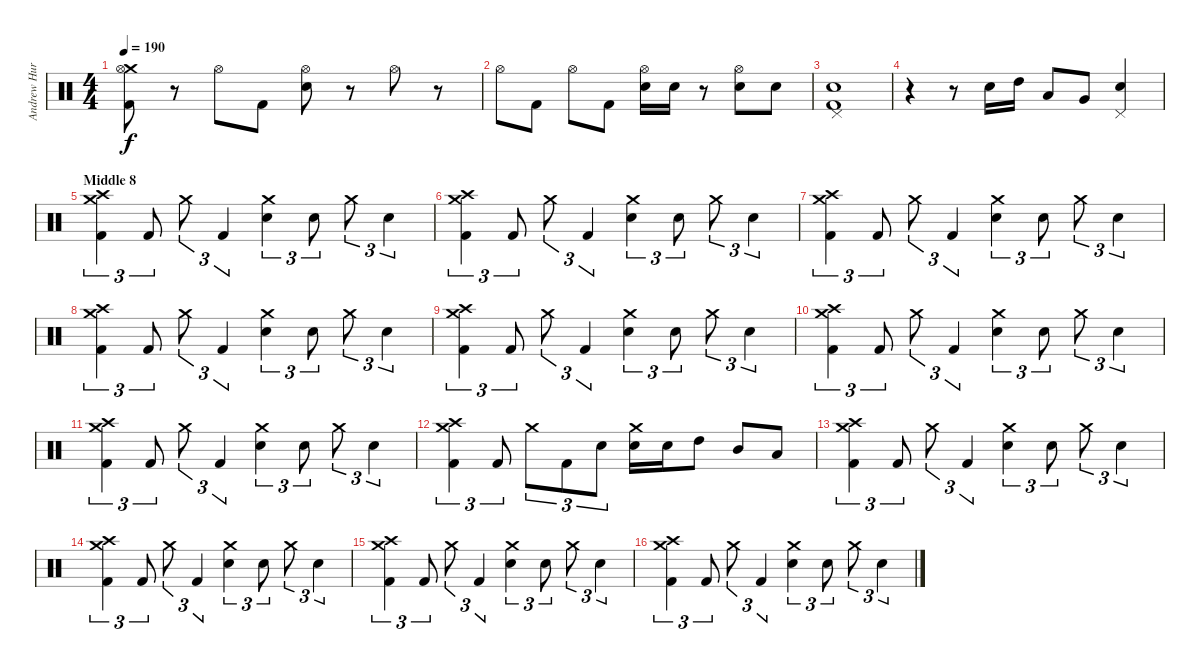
\track ("Andrew Hurley (Drums)" "Andrew Hur") {instrument percussion}
\staff {score}
\articulation defaults
\ts (4 4)
\tempo 190
\clef neutral
\ks c
("Crash medium (hit)" "Hi-Hat (open)" "Kick (hit) 2").8{dy f} r.8 "Hi-Hat (open)".8 "Kick (hit) 2".8 ("Hi-Hat (open)" "Electric Snare (hit)").8 r.8 "Hi-Hat (open)".8 r.8 |
"Hi-Hat (open)".8 "Kick (hit) 2".8 "Hi-Hat (open)".8 "Kick (hit) 2".8 ("Hi-Hat (open)" "Electric Snare (hit)").16 "Electric Snare (hit)".16 r.8 ("Hi-Hat (open)" "Electric Snare (hit)").8 "Electric Snare (hit)".8 |
("Pedal Hi-Hat (hit)" "Electric Snare (hit)" "Kick (hit) 2").1 |
r.4 r.8 "Electric Snare (hit)".16 "High Tom (hit)".16 "Low Tom (hit)".8 "Very Low Tom (hit)".8 ("Pedal Hi-Hat (hit)" "Electric Snare (hit)").4 |
\section ("" "Middle 8")
("Crash high (hit)" "Crash medium (hit)" "Kick (hit) 2").4{tu (3 2)} "Kick (hit) 2".8{tu (3 2)} "Crash medium (hit)".8{tu (3 2)} "Kick (hit) 2".4{tu (3 2)} ("Crash medium (hit)" "Electric Snare (hit)").4{tu (3 2)} "Electric Snare (hit)".8{tu (3 2)} "Crash medium (hit)".8{tu (3 2)} "Electric Snare (hit)".4{tu (3 2)} |
("Crash high (hit)" "Crash medium (hit)" "Kick (hit) 2").4{tu (3 2)} "Kick (hit) 2".8{tu (3 2)} "Crash medium (hit)".8{tu (3 2)} "Kick (hit) 2".4{tu (3 2)} ("Crash medium (hit)" "Electric Snare (hit)").4{tu (3 2)} "Electric Snare (hit)".8{tu (3 2)} "Crash medium (hit)".8{tu (3 2)} "Electric Snare (hit)".4{tu (3 2)} |
("Crash high (hit)" "Crash medium (hit)" "Kick (hit) 2").4{tu (3 2)} "Kick (hit) 2".8{tu (3 2)} "Crash medium (hit)".8{tu (3 2)} "Kick (hit) 2".4{tu (3 2)} ("Crash medium (hit)" "Electric Snare (hit)").4{tu (3 2)} "Electric Snare (hit)".8{tu (3 2)} "Crash medium (hit)".8{tu (3 2)} "Electric Snare (hit)".4{tu (3 2)} |
("Crash high (hit)" "Crash medium (hit)" "Kick (hit) 2").4{tu (3 2)} "Kick (hit) 2".8{tu (3 2)} "Crash medium (hit)".8{tu (3 2)} "Kick (hit) 2".4{tu (3 2)} ("Crash medium (hit)" "Electric Snare (hit)").4{tu (3 2)} "Electric Snare (hit)".8{tu (3 2)} "Crash medium (hit)".8{tu (3 2)} "Electric Snare (hit)".4{tu (3 2)} |
("Crash high (hit)" "Crash medium (hit)" "Kick (hit) 2").4{tu (3 2)} "Kick (hit) 2".8{tu (3 2)} "Crash medium (hit)".8{tu (3 2)} "Kick (hit) 2".4{tu (3 2)} ("Crash medium (hit)" "Electric Snare (hit)").4{tu (3 2)} "Electric Snare (hit)".8{tu (3 2)} "Crash medium (hit)".8{tu (3 2)} "Electric Snare (hit)".4{tu (3 2)} |
("Crash high (hit)" "Crash medium (hit)" "Kick (hit) 2").4{tu (3 2)} "Kick (hit) 2".8{tu (3 2)} "Crash medium (hit)".8{tu (3 2)} "Kick (hit) 2".4{tu (3 2)} ("Crash medium (hit)" "Electric Snare (hit)").4{tu (3 2)} "Electric Snare (hit)".8{tu (3 2)} "Crash medium (hit)".8{tu (3 2)} "Electric Snare (hit)".4{tu (3 2)} |
("Crash high (hit)" "Crash medium (hit)" "Kick (hit) 2").4{tu (3 2)} "Kick (hit) 2".8{tu (3 2)} "Crash medium (hit)".8{tu (3 2)} "Kick (hit) 2".4{tu (3 2)} ("Crash medium (hit)" "Electric Snare (hit)").4{tu (3 2)} "Electric Snare (hit)".8{tu (3 2)} "Crash medium (hit)".8{tu (3 2)} "Electric Snare (hit)".4{tu (3 2)} |
("Crash high (hit)" "Crash medium (hit)" "Kick (hit) 2").4{tu (3 2)} "Kick (hit) 2".8{tu (3 2)} "Crash medium (hit)".8{tu (3 2)} "Kick (hit) 2".8{tu (3 2)} "Electric Snare (hit)".8{tu (3 2)} ("Crash medium (hit)" "Electric Snare (hit)").16 "Electric Snare (hit)".16 "High Tom (hit)".8 "Mid Tom (hit)".8 "Low Tom (hit)".8 |
("Crash high (hit)" "Crash medium (hit)" "Kick (hit) 2").4{tu (3 2)} "Kick (hit) 2".8{tu (3 2)} "Crash medium (hit)".8{tu (3 2)} "Kick (hit) 2".4{tu (3 2)} ("Crash medium (hit)" "Electric Snare (hit)").4{tu (3 2)} "Electric Snare (hit)".8{tu (3 2)} "Crash medium (hit)".8{tu (3 2)} "Electric Snare (hit)".4{tu (3 2)} |
("Crash high (hit)" "Crash medium (hit)" "Kick (hit) 2").4{tu (3 2)} "Kick (hit) 2".8{tu (3 2)} "Crash medium (hit)".8{tu (3 2)} "Kick (hit) 2".4{tu (3 2)} ("Crash medium (hit)" "Electric Snare (hit)").4{tu (3 2)} "Electric Snare (hit)".8{tu (3 2)} "Crash medium (hit)".8{tu (3 2)} "Electric Snare (hit)".4{tu (3 2)} |
("Crash high (hit)" "Crash medium (hit)" "Kick (hit) 2").4{tu (3 2)} "Kick (hit) 2".8{tu (3 2)} "Crash medium (hit)".8{tu (3 2)} "Kick (hit) 2".4{tu (3 2)} ("Crash medium (hit)" "Electric Snare (hit)").4{tu (3 2)} "Electric Snare (hit)".8{tu (3 2)} "Crash medium (hit)".8{tu (3 2)} "Electric Snare (hit)".4{tu (3 2)} |
("Crash high (hit)" "Crash medium (hit)" "Kick (hit) 2").4{tu (3 2)} "Kick (hit) 2".8{tu (3 2)} "Crash medium (hit)".8{tu (3 2)} "Kick (hit) 2".4{tu (3 2)} ("Crash medium (hit)" "Electric Snare (hit)").4{tu (3 2)} "Electric Snare (hit)".8{tu (3 2)} "Crash medium (hit)".8{tu (3 2)} "Electric Snare (hit)".4{tu (3 2)}
